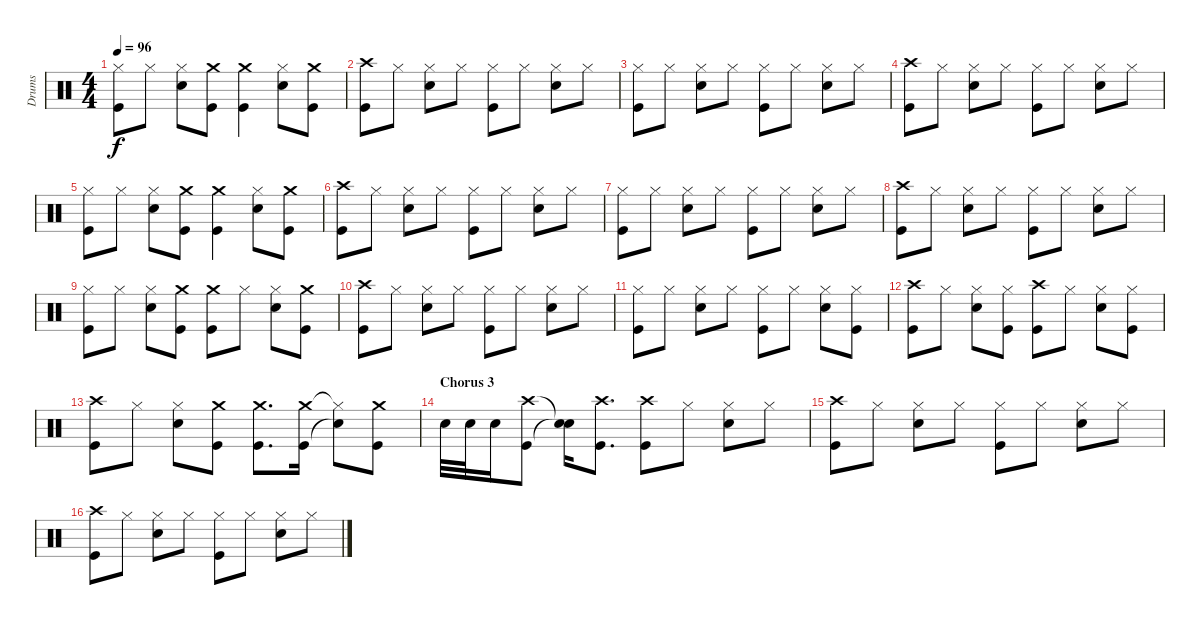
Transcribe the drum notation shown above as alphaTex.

\track ("Drums" "Drums") {instrument percussion}
\staff {score}
\articulation defaults
\ts (4 4)
\tempo 96
\clef neutral
\ks c
("Hi-Hat (closed)" "Kick (hit)").8{dy f} "Hi-Hat (closed)".8 ("Hi-Hat (closed)" "Electric Snare (hit)").8 ("Crash medium (hit)" "Kick (hit)").8 ("Crash medium (hit)" "Kick (hit)").4 ("Hi-Hat (closed)" "Electric Snare (hit)").8 ("Crash medium (hit)" "Kick (hit)").8 |
("Crash high (hit)" "Kick (hit)").8 "Hi-Hat (closed)".8 ("Hi-Hat (closed)" "Electric Snare (hit)").8 "Hi-Hat (closed)".8 ("Hi-Hat (closed)" "Kick (hit)").8 "Hi-Hat (closed)".8 ("Hi-Hat (closed)" "Electric Snare (hit)").8 "Hi-Hat (closed)".8 |
("Hi-Hat (closed)" "Kick (hit)").8 "Hi-Hat (closed)".8 ("Hi-Hat (closed)" "Electric Snare (hit)").8 "Hi-Hat (closed)".8 ("Hi-Hat (closed)" "Kick (hit)").8 "Hi-Hat (closed)".8 ("Hi-Hat (closed)" "Electric Snare (hit)").8 "Hi-Hat (closed)".8 |
("Crash high (hit)" "Kick (hit)").8 "Hi-Hat (closed)".8 ("Hi-Hat (closed)" "Electric Snare (hit)").8 "Hi-Hat (closed)".8 ("Hi-Hat (closed)" "Kick (hit)").8 "Hi-Hat (closed)".8 ("Hi-Hat (closed)" "Electric Snare (hit)").8 "Hi-Hat (closed)".8 |
("Hi-Hat (closed)" "Kick (hit)").8 "Hi-Hat (closed)".8 ("Hi-Hat (closed)" "Electric Snare (hit)").8 ("Crash medium (hit)" "Kick (hit)").8 ("Crash medium (hit)" "Kick (hit)").4 ("Hi-Hat (closed)" "Electric Snare (hit)").8 ("Crash medium (hit)" "Kick (hit)").8 |
("Crash high (hit)" "Kick (hit)").8 "Hi-Hat (closed)".8 ("Hi-Hat (closed)" "Electric Snare (hit)").8 "Hi-Hat (closed)".8 ("Hi-Hat (closed)" "Kick (hit)").8 "Hi-Hat (closed)".8 ("Hi-Hat (closed)" "Electric Snare (hit)").8 "Hi-Hat (closed)".8 |
("Hi-Hat (closed)" "Kick (hit)").8 "Hi-Hat (closed)".8 ("Hi-Hat (closed)" "Electric Snare (hit)").8 "Hi-Hat (closed)".8 ("Hi-Hat (closed)" "Kick (hit)").8 "Hi-Hat (closed)".8 ("Hi-Hat (closed)" "Electric Snare (hit)").8 "Hi-Hat (closed)".8 |
("Crash high (hit)" "Kick (hit)").8 "Hi-Hat (closed)".8 ("Hi-Hat (closed)" "Electric Snare (hit)").8 "Hi-Hat (closed)".8 ("Hi-Hat (closed)" "Kick (hit)").8 "Hi-Hat (closed)".8 ("Hi-Hat (closed)" "Electric Snare (hit)").8 "Hi-Hat (closed)".8 |
("Hi-Hat (closed)" "Kick (hit)").8 "Hi-Hat (closed)".8 ("Hi-Hat (closed)" "Electric Snare (hit)").8 ("Crash medium (hit)" "Kick (hit)").8 ("Crash medium (hit)" "Kick (hit)").8 "Hi-Hat (closed)".8 ("Hi-Hat (closed)" "Electric Snare (hit)").8 ("Crash medium (hit)" "Kick (hit)").8 |
("Crash high (hit)" "Kick (hit)").8 "Hi-Hat (closed)".8 ("Hi-Hat (closed)" "Electric Snare (hit)").8 "Hi-Hat (closed)".8 ("Hi-Hat (closed)" "Kick (hit)").8 "Hi-Hat (closed)".8 ("Hi-Hat (closed)" "Electric Snare (hit)").8 "Hi-Hat (closed)".8 |
("Hi-Hat (closed)" "Kick (hit)").8 "Hi-Hat (closed)".8 ("Hi-Hat (closed)" "Electric Snare (hit)").8 "Hi-Hat (closed)".8 ("Hi-Hat (closed)" "Kick (hit)").8 "Hi-Hat (closed)".8 ("Hi-Hat (closed)" "Electric Snare (hit)").8 ("Hi-Hat (closed)" "Kick (hit)").8 |
("Crash high (hit)" "Kick (hit)").8 "Hi-Hat (closed)".8 ("Hi-Hat (closed)" "Electric Snare (hit)").8 ("Hi-Hat (closed)" "Kick (hit)").8 ("Crash high (hit)" "Kick (hit)").8 "Hi-Hat (closed)".8 ("Hi-Hat (closed)" "Electric Snare (hit)").8 ("Hi-Hat (closed)" "Kick (hit)").8 |
("Crash high (hit)" "Kick (hit)").8 "Hi-Hat (closed)".8 ("Hi-Hat (closed)" "Electric Snare (hit)").8 ("Crash medium (hit)" "Kick (hit)").8 ("Crash medium (hit)" "Kick (hit)").8{d} ("Crash medium (hit)" "Kick (hit)").16 ("Hi-Hat (closed)"{t} "Electric Snare (hit)"{t}).8 ("Crash medium (hit)" "Kick (hit)").8 |
\section ("" "Chorus 3")
"Electric Snare (hit)".32 "Electric Snare (hit)".32 "Electric Snare (hit)".16 ("Crash high (hit)" "Kick (hit)").8 ("Snare (hit)"{t} "Snare (hit)"{t}).16 ("Crash high (hit)" "Kick (hit)").8{d} ("Crash high (hit)" "Kick (hit)").8 "Hi-Hat (closed)".8 ("Hi-Hat (closed)" "Electric Snare (hit)").8 "Hi-Hat (closed)".8 |
("Crash high (hit)" "Kick (hit)").8 "Hi-Hat (closed)".8 ("Hi-Hat (closed)" "Electric Snare (hit)").8 "Hi-Hat (closed)".8 ("Hi-Hat (closed)" "Kick (hit)").8 "Hi-Hat (closed)".8 ("Hi-Hat (closed)" "Electric Snare (hit)").8 "Hi-Hat (closed)".8 |
("Crash high (hit)" "Kick (hit)").8 "Hi-Hat (closed)".8 ("Hi-Hat (closed)" "Electric Snare (hit)").8 "Hi-Hat (closed)".8 ("Hi-Hat (closed)" "Kick (hit)").8 "Hi-Hat (closed)".8 ("Hi-Hat (closed)" "Electric Snare (hit)").8 "Hi-Hat (closed)".8
